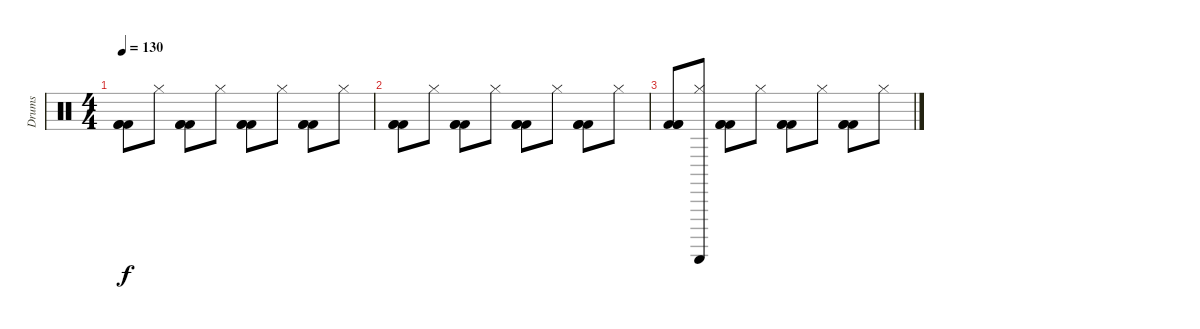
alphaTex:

\track ("Drums" "Drums") {instrument percussion}
\staff {score}
\articulation defaults
\ts (4 4)
\tempo 130
\clef neutral
\ks c
("Kick (hit) 2" "Kick (hit) 2" "Kick (hit) 2").8{dy f} "Hi-Hat (closed)".8 ("Kick (hit) 2" "Kick (hit) 2" "Kick (hit) 2").8 "Hi-Hat (closed)".8 ("Kick (hit) 2" "Kick (hit) 2" "Kick (hit) 2").8 "Hi-Hat (closed)".8 ("Kick (hit) 2" "Kick (hit) 2" "Kick (hit) 2").8 "Hi-Hat (closed)".8 |
("Kick (hit) 2" "Kick (hit) 2" "Kick (hit) 2").8 "Hi-Hat (closed)".8 ("Kick (hit) 2" "Kick (hit) 2" "Kick (hit) 2").8 "Hi-Hat (closed)".8 ("Kick (hit) 2" "Kick (hit) 2" "Kick (hit) 2").8 "Hi-Hat (closed)".8 ("Kick (hit) 2" "Kick (hit) 2" "Kick (hit) 2").8 "Hi-Hat (closed)".8 |
("Kick (hit) 2" "Kick (hit) 2" "Kick (hit) 2").8 ("Guiro (scrap-return)" "Hi-Hat (closed)").8 ("Kick (hit) 2" "Kick (hit) 2" "Kick (hit) 2").8 "Hi-Hat (closed)".8 ("Kick (hit) 2" "Kick (hit) 2" "Kick (hit) 2").8 "Hi-Hat (closed)".8 ("Kick (hit) 2" "Kick (hit) 2" "Kick (hit) 2").8 "Hi-Hat (closed)".8
